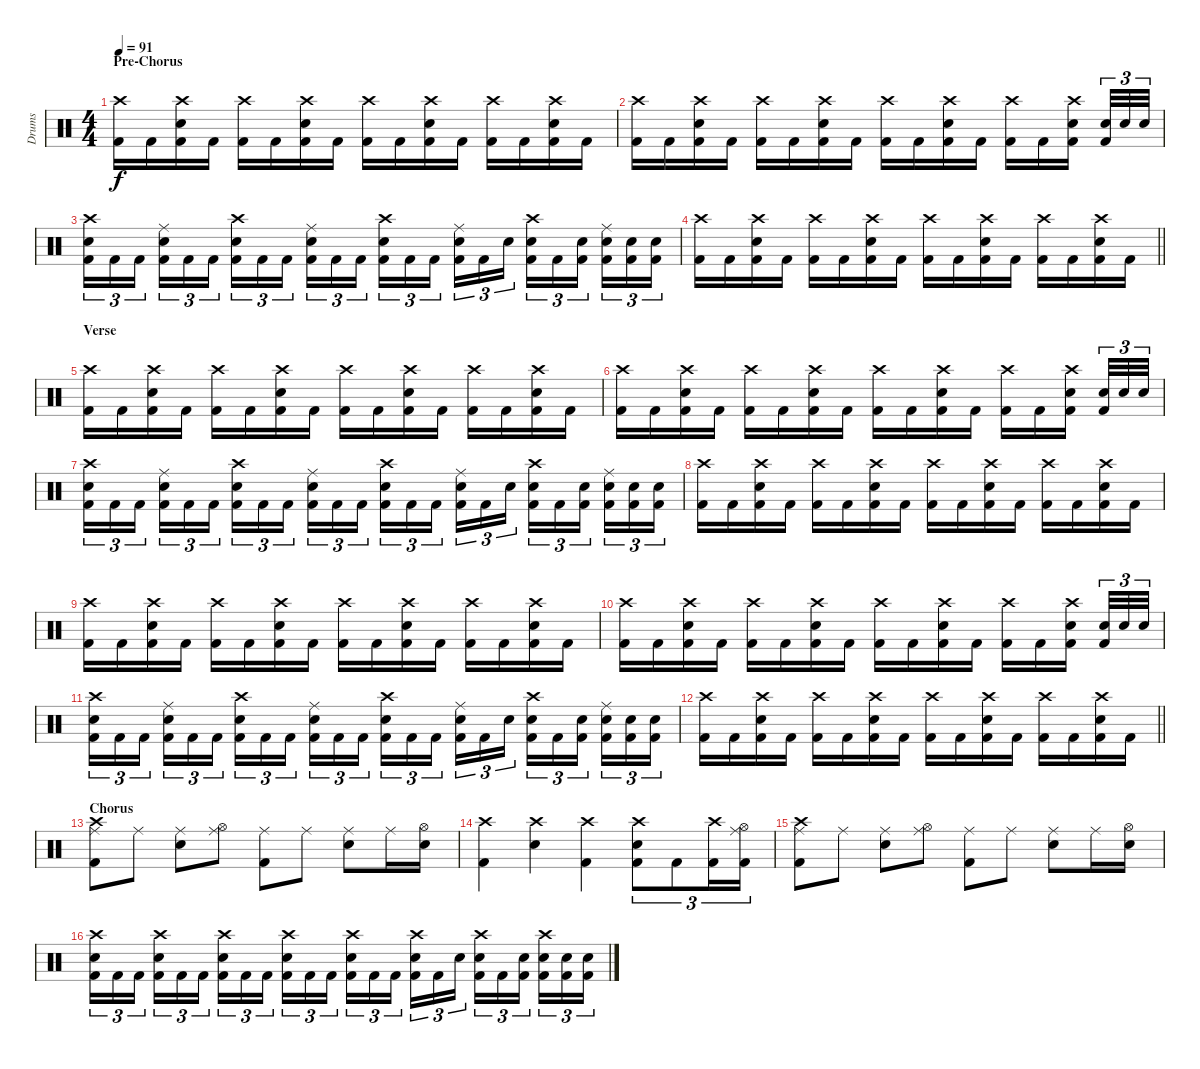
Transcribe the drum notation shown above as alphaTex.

\track ("Drums" "Drums") {instrument percussion}
\staff {score}
\articulation defaults
\ts (4 4)
\section ("" "Pre-Chorus")
\tempo 91
\clef neutral
\ks c
("Crash high (hit)" "Kick (hit) 2").16{dy f} "Kick (hit) 2".16 ("Snare (hit) 2" "Crash high (hit)" "Kick (hit) 2").16 "Kick (hit) 2".16 ("Crash high (hit)" "Kick (hit) 2").16 "Kick (hit) 2".16 ("Snare (hit) 2" "Crash high (hit)" "Kick (hit) 2").16 "Kick (hit) 2".16 ("Crash high (hit)" "Kick (hit) 2").16 "Kick (hit) 2".16 ("Snare (hit) 2" "Crash high (hit)" "Kick (hit) 2").16 "Kick (hit) 2".16 ("Crash high (hit)" "Kick (hit) 2").16 "Kick (hit) 2".16 ("Snare (hit) 2" "Crash high (hit)" "Kick (hit) 2").16 "Kick (hit) 2".16 |
("Crash high (hit)" "Kick (hit) 2").16 "Kick (hit) 2".16 ("Snare (hit) 2" "Crash high (hit)" "Kick (hit) 2").16 "Kick (hit) 2".16 ("Crash high (hit)" "Kick (hit) 2").16 "Kick (hit) 2".16 ("Snare (hit) 2" "Crash high (hit)" "Kick (hit) 2").16 "Kick (hit) 2".16 ("Crash high (hit)" "Kick (hit) 2").16 "Kick (hit) 2".16 ("Snare (hit) 2" "Crash high (hit)" "Kick (hit) 2").16 "Kick (hit) 2".16 ("Crash high (hit)" "Kick (hit) 2").16 "Kick (hit) 2".16 ("Snare (hit) 2" "Crash high (hit)" "Kick (hit) 2").16{beam splitsecondary} ("Snare (hit) 2" "Kick (hit) 2").32{tu (3 2)} "Snare (hit) 2".32{tu (3 2)} "Snare (hit) 2".32{tu (3 2)} |
("Crash high (hit)" "Snare (hit) 2" "Kick (hit) 2").16{tu (3 2)} "Kick (hit) 2".16{tu (3 2)} "Kick (hit) 2".16{tu (3 2) beam splitsecondary} ("Ride (middle)" "Snare (hit) 2" "Kick (hit) 2").16{tu (3 2)} "Kick (hit) 2".16{tu (3 2)} "Kick (hit) 2".16{tu (3 2)} ("Crash high (hit)" "Snare (hit) 2" "Kick (hit) 2").16{tu (3 2)} "Kick (hit) 2".16{tu (3 2)} "Kick (hit) 2".16{tu (3 2) beam splitsecondary} ("Ride (middle)" "Snare (hit) 2" "Kick (hit) 2").16{tu (3 2)} "Kick (hit) 2".16{tu (3 2)} "Kick (hit) 2".16{tu (3 2)} ("Crash high (hit)" "Snare (hit) 2" "Kick (hit) 2").16{tu (3 2)} "Kick (hit) 2".16{tu (3 2)} "Kick (hit) 2".16{tu (3 2) beam splitsecondary} ("Ride (middle)" "Snare (hit) 2" "Kick (hit) 2").16{tu (3 2)} "Kick (hit) 2".16{tu (3 2)} "Snare (hit) 2".16{tu (3 2)} ("Crash high (hit)" "Snare (hit) 2" "Kick (hit) 2").16{tu (3 2)} "Kick (hit) 2".16{tu (3 2)} ("Snare (hit) 2" "Kick (hit) 2").16{tu (3 2) beam splitsecondary} ("Ride (middle)" "Snare (hit) 2" "Kick (hit) 2").16{tu (3 2)} ("Snare (hit) 2" "Kick (hit) 2").16{tu (3 2)} ("Snare (hit) 2" "Kick (hit) 2").16{tu (3 2)} |
\barLineRight lightlight
("Crash high (hit)" "Kick (hit) 2").16 "Kick (hit) 2".16 ("Snare (hit) 2" "Crash high (hit)" "Kick (hit) 2").16 "Kick (hit) 2".16 ("Crash high (hit)" "Kick (hit) 2").16 "Kick (hit) 2".16 ("Snare (hit) 2" "Crash high (hit)" "Kick (hit) 2").16 "Kick (hit) 2".16 ("Crash high (hit)" "Kick (hit) 2").16 "Kick (hit) 2".16 ("Snare (hit) 2" "Crash high (hit)" "Kick (hit) 2").16 "Kick (hit) 2".16 ("Crash high (hit)" "Kick (hit) 2").16 "Kick (hit) 2".16 ("Snare (hit) 2" "Crash high (hit)" "Kick (hit) 2").16 "Kick (hit) 2".16 |
\section ("" "Verse")
("Crash high (hit)" "Kick (hit) 2").16 "Kick (hit) 2".16 ("Snare (hit) 2" "Crash high (hit)" "Kick (hit) 2").16 "Kick (hit) 2".16 ("Crash high (hit)" "Kick (hit) 2").16 "Kick (hit) 2".16 ("Snare (hit) 2" "Crash high (hit)" "Kick (hit) 2").16 "Kick (hit) 2".16 ("Crash high (hit)" "Kick (hit) 2").16 "Kick (hit) 2".16 ("Snare (hit) 2" "Crash high (hit)" "Kick (hit) 2").16 "Kick (hit) 2".16 ("Crash high (hit)" "Kick (hit) 2").16 "Kick (hit) 2".16 ("Snare (hit) 2" "Crash high (hit)" "Kick (hit) 2").16 "Kick (hit) 2".16 |
("Crash high (hit)" "Kick (hit) 2").16 "Kick (hit) 2".16 ("Snare (hit) 2" "Crash high (hit)" "Kick (hit) 2").16 "Kick (hit) 2".16 ("Crash high (hit)" "Kick (hit) 2").16 "Kick (hit) 2".16 ("Snare (hit) 2" "Crash high (hit)" "Kick (hit) 2").16 "Kick (hit) 2".16 ("Crash high (hit)" "Kick (hit) 2").16 "Kick (hit) 2".16 ("Snare (hit) 2" "Crash high (hit)" "Kick (hit) 2").16 "Kick (hit) 2".16 ("Crash high (hit)" "Kick (hit) 2").16 "Kick (hit) 2".16 ("Snare (hit) 2" "Crash high (hit)" "Kick (hit) 2").16{beam splitsecondary} ("Snare (hit) 2" "Kick (hit) 2").32{tu (3 2)} "Snare (hit) 2".32{tu (3 2)} "Snare (hit) 2".32{tu (3 2)} |
("Crash high (hit)" "Snare (hit) 2" "Kick (hit) 2").16{tu (3 2)} "Kick (hit) 2".16{tu (3 2)} "Kick (hit) 2".16{tu (3 2) beam splitsecondary} ("Ride (middle)" "Snare (hit) 2" "Kick (hit) 2").16{tu (3 2)} "Kick (hit) 2".16{tu (3 2)} "Kick (hit) 2".16{tu (3 2)} ("Crash high (hit)" "Snare (hit) 2" "Kick (hit) 2").16{tu (3 2)} "Kick (hit) 2".16{tu (3 2)} "Kick (hit) 2".16{tu (3 2) beam splitsecondary} ("Ride (middle)" "Snare (hit) 2" "Kick (hit) 2").16{tu (3 2)} "Kick (hit) 2".16{tu (3 2)} "Kick (hit) 2".16{tu (3 2)} ("Crash high (hit)" "Snare (hit) 2" "Kick (hit) 2").16{tu (3 2)} "Kick (hit) 2".16{tu (3 2)} "Kick (hit) 2".16{tu (3 2) beam splitsecondary} ("Ride (middle)" "Snare (hit) 2" "Kick (hit) 2").16{tu (3 2)} "Kick (hit) 2".16{tu (3 2)} "Snare (hit) 2".16{tu (3 2)} ("Crash high (hit)" "Snare (hit) 2" "Kick (hit) 2").16{tu (3 2)} "Kick (hit) 2".16{tu (3 2)} ("Snare (hit) 2" "Kick (hit) 2").16{tu (3 2) beam splitsecondary} ("Ride (middle)" "Snare (hit) 2" "Kick (hit) 2").16{tu (3 2)} ("Snare (hit) 2" "Kick (hit) 2").16{tu (3 2)} ("Snare (hit) 2" "Kick (hit) 2").16{tu (3 2)} |
("Crash high (hit)" "Kick (hit) 2").16 "Kick (hit) 2".16 ("Snare (hit) 2" "Crash high (hit)" "Kick (hit) 2").16 "Kick (hit) 2".16 ("Crash high (hit)" "Kick (hit) 2").16 "Kick (hit) 2".16 ("Snare (hit) 2" "Crash high (hit)" "Kick (hit) 2").16 "Kick (hit) 2".16 ("Crash high (hit)" "Kick (hit) 2").16 "Kick (hit) 2".16 ("Snare (hit) 2" "Crash high (hit)" "Kick (hit) 2").16 "Kick (hit) 2".16 ("Crash high (hit)" "Kick (hit) 2").16 "Kick (hit) 2".16 ("Snare (hit) 2" "Crash high (hit)" "Kick (hit) 2").16 "Kick (hit) 2".16 |
("Crash high (hit)" "Kick (hit) 2").16 "Kick (hit) 2".16 ("Snare (hit) 2" "Crash high (hit)" "Kick (hit) 2").16 "Kick (hit) 2".16 ("Crash high (hit)" "Kick (hit) 2").16 "Kick (hit) 2".16 ("Snare (hit) 2" "Crash high (hit)" "Kick (hit) 2").16 "Kick (hit) 2".16 ("Crash high (hit)" "Kick (hit) 2").16 "Kick (hit) 2".16 ("Snare (hit) 2" "Crash high (hit)" "Kick (hit) 2").16 "Kick (hit) 2".16 ("Crash high (hit)" "Kick (hit) 2").16 "Kick (hit) 2".16 ("Snare (hit) 2" "Crash high (hit)" "Kick (hit) 2").16 "Kick (hit) 2".16 |
("Crash high (hit)" "Kick (hit) 2").16 "Kick (hit) 2".16 ("Snare (hit) 2" "Crash high (hit)" "Kick (hit) 2").16 "Kick (hit) 2".16 ("Crash high (hit)" "Kick (hit) 2").16 "Kick (hit) 2".16 ("Snare (hit) 2" "Crash high (hit)" "Kick (hit) 2").16 "Kick (hit) 2".16 ("Crash high (hit)" "Kick (hit) 2").16 "Kick (hit) 2".16 ("Snare (hit) 2" "Crash high (hit)" "Kick (hit) 2").16 "Kick (hit) 2".16 ("Crash high (hit)" "Kick (hit) 2").16 "Kick (hit) 2".16 ("Snare (hit) 2" "Crash high (hit)" "Kick (hit) 2").16{beam splitsecondary} ("Snare (hit) 2" "Kick (hit) 2").32{tu (3 2)} "Snare (hit) 2".32{tu (3 2)} "Snare (hit) 2".32{tu (3 2)} |
("Crash high (hit)" "Snare (hit) 2" "Kick (hit) 2").16{tu (3 2)} "Kick (hit) 2".16{tu (3 2)} "Kick (hit) 2".16{tu (3 2) beam splitsecondary} ("Ride (middle)" "Snare (hit) 2" "Kick (hit) 2").16{tu (3 2)} "Kick (hit) 2".16{tu (3 2)} "Kick (hit) 2".16{tu (3 2)} ("Crash high (hit)" "Snare (hit) 2" "Kick (hit) 2").16{tu (3 2)} "Kick (hit) 2".16{tu (3 2)} "Kick (hit) 2".16{tu (3 2) beam splitsecondary} ("Ride (middle)" "Snare (hit) 2" "Kick (hit) 2").16{tu (3 2)} "Kick (hit) 2".16{tu (3 2)} "Kick (hit) 2".16{tu (3 2)} ("Crash high (hit)" "Snare (hit) 2" "Kick (hit) 2").16{tu (3 2)} "Kick (hit) 2".16{tu (3 2)} "Kick (hit) 2".16{tu (3 2) beam splitsecondary} ("Ride (middle)" "Snare (hit) 2" "Kick (hit) 2").16{tu (3 2)} "Kick (hit) 2".16{tu (3 2)} "Snare (hit) 2".16{tu (3 2)} ("Crash high (hit)" "Snare (hit) 2" "Kick (hit) 2").16{tu (3 2)} "Kick (hit) 2".16{tu (3 2)} ("Snare (hit) 2" "Kick (hit) 2").16{tu (3 2) beam splitsecondary} ("Ride (middle)" "Snare (hit) 2" "Kick (hit) 2").16{tu (3 2)} ("Snare (hit) 2" "Kick (hit) 2").16{tu (3 2)} ("Snare (hit) 2" "Kick (hit) 2").16{tu (3 2)} |
\barLineRight lightlight
("Crash high (hit)" "Kick (hit) 2").16 "Kick (hit) 2".16 ("Snare (hit) 2" "Crash high (hit)" "Kick (hit) 2").16 "Kick (hit) 2".16 ("Crash high (hit)" "Kick (hit) 2").16 "Kick (hit) 2".16 ("Snare (hit) 2" "Crash high (hit)" "Kick (hit) 2").16 "Kick (hit) 2".16 ("Crash high (hit)" "Kick (hit) 2").16 "Kick (hit) 2".16 ("Snare (hit) 2" "Crash high (hit)" "Kick (hit) 2").16 "Kick (hit) 2".16 ("Crash high (hit)" "Kick (hit) 2").16 "Kick (hit) 2".16 ("Snare (hit) 2" "Crash high (hit)" "Kick (hit) 2").16 "Kick (hit) 2".16 |
\section ("" "Chorus")
("Crash high (hit)" "Ride (middle)" "Kick (hit) 2").8 "Ride (middle)".8 ("Ride (middle)" "Snare (hit) 2").8 ("Ride (middle)" "Hi-Hat (open)").8 ("Ride (middle)" "Kick (hit) 2").8 "Ride (middle)".8 ("Ride (middle)" "Snare (hit) 2").8 "Ride (middle)".16 ("Snare (hit) 2" "Hi-Hat (open)").16 |
("Crash high (hit)" "Kick (hit) 2").4 ("Crash high (hit)" "Snare (hit) 2").4 ("Crash high (hit)" "Kick (hit) 2").4 ("Crash high (hit)" "Snare (hit) 2" "Kick (hit) 2").8{tu (3 2)} "Kick (hit) 2".8{tu (3 2)} ("Crash high (hit)" "Kick (hit) 2").16{tu (3 2)} ("Ride (middle)" "Hi-Hat (open)" "Kick (hit) 2").16{tu (3 2)} |
("Crash high (hit)" "Ride (middle)" "Kick (hit) 2").8 "Ride (middle)".8 ("Ride (middle)" "Snare (hit) 2").8 ("Ride (middle)" "Hi-Hat (open)").8 ("Ride (middle)" "Kick (hit) 2").8 "Ride (middle)".8 ("Ride (middle)" "Snare (hit) 2").8 "Ride (middle)".16 ("Snare (hit) 2" "Hi-Hat (open)").16 |
("Crash high (hit)" "Snare (hit) 2" "Kick (hit) 2").16{tu (3 2)} "Kick (hit) 2".16{tu (3 2)} "Kick (hit) 2".16{tu (3 2) beam splitsecondary} ("Crash high (hit)" "Snare (hit) 2" "Kick (hit) 2").16{tu (3 2)} "Kick (hit) 2".16{tu (3 2)} "Kick (hit) 2".16{tu (3 2)} ("Crash high (hit)" "Snare (hit) 2" "Kick (hit) 2").16{tu (3 2)} "Kick (hit) 2".16{tu (3 2)} "Kick (hit) 2".16{tu (3 2) beam splitsecondary} ("Crash high (hit)" "Snare (hit) 2" "Kick (hit) 2").16{tu (3 2)} "Kick (hit) 2".16{tu (3 2)} "Kick (hit) 2".16{tu (3 2)} ("Crash high (hit)" "Snare (hit) 2" "Kick (hit) 2").16{tu (3 2)} "Kick (hit) 2".16{tu (3 2)} "Kick (hit) 2".16{tu (3 2) beam splitsecondary} ("Crash high (hit)" "Snare (hit) 2" "Kick (hit) 2").16{tu (3 2)} "Kick (hit) 2".16{tu (3 2)} "Snare (hit) 2".16{tu (3 2)} ("Crash high (hit)" "Snare (hit) 2" "Kick (hit) 2").16{tu (3 2)} "Kick (hit) 2".16{tu (3 2)} ("Snare (hit) 2" "Kick (hit) 2").16{tu (3 2) beam splitsecondary} ("Crash high (hit)" "Snare (hit) 2" "Kick (hit) 2").16{tu (3 2)} ("Snare (hit) 2" "Kick (hit) 2").16{tu (3 2)} ("Snare (hit) 2" "Kick (hit) 2").16{tu (3 2)}
